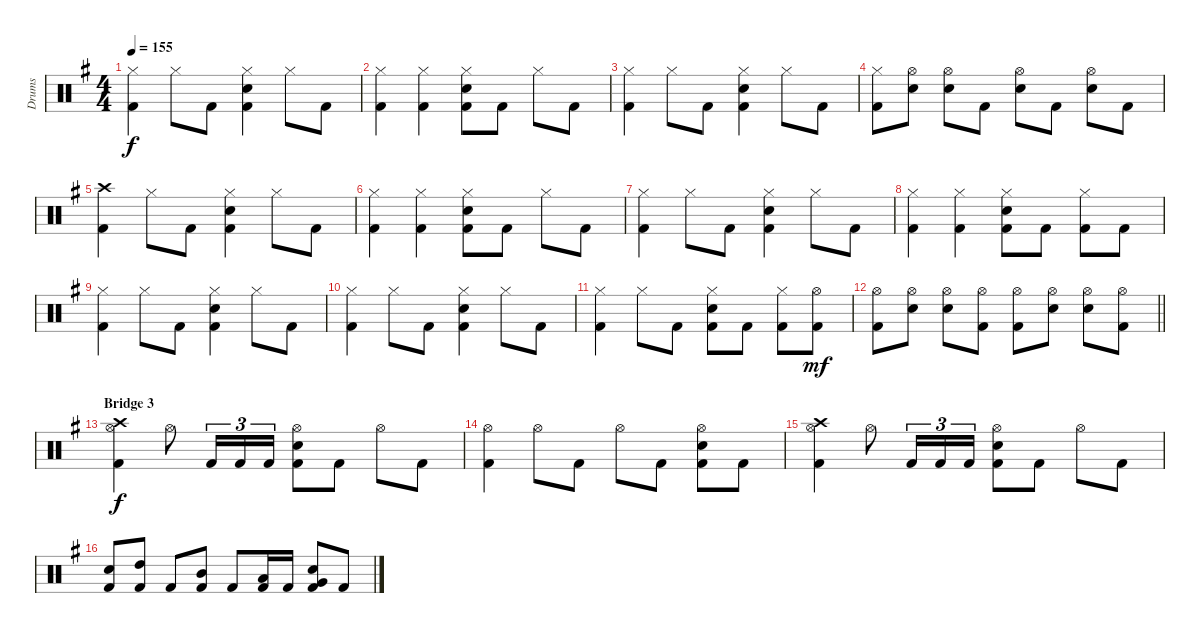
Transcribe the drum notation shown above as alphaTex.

\track ("Drums" "Drums") {instrument percussion}
\staff {score}
\articulation defaults
\ts (4 4)
\tempo 155
\clef neutral
\ks g
("Hi-Hat (closed)" "Kick (hit) 2").4{dy f} "Hi-Hat (closed)".8 "Kick (hit) 2".8 ("Hi-Hat (closed)" "Snare (hit) 2" "Kick (hit) 2").4 "Hi-Hat (closed)".8 "Kick (hit) 2".8 |
("Hi-Hat (closed)" "Kick (hit) 2").4 ("Hi-Hat (closed)" "Kick (hit) 2").4 ("Hi-Hat (closed)" "Snare (hit) 2" "Kick (hit) 2").8 "Kick (hit) 2".8 "Hi-Hat (closed)".8 "Kick (hit) 2".8 |
("Hi-Hat (closed)" "Kick (hit) 2").4 "Hi-Hat (closed)".8 "Kick (hit) 2".8 ("Hi-Hat (closed)" "Snare (hit) 2" "Kick (hit) 2").4 "Hi-Hat (closed)".8 "Kick (hit) 2".8 |
("Hi-Hat (closed)" "Kick (hit) 2").8 ("Hi-Hat (open)" "Snare (hit) 2").8 ("Hi-Hat (open)" "Snare (hit) 2").8 "Kick (hit) 2".8 ("Hi-Hat (open)" "Snare (hit) 2").8 "Kick (hit) 2".8 ("Hi-Hat (open)" "Snare (hit) 2").8 "Kick (hit) 2".8 |
("Crash high (hit)" "Kick (hit) 2").4 "Hi-Hat (closed)".8 "Kick (hit) 2".8 ("Hi-Hat (closed)" "Snare (hit) 2" "Kick (hit) 2").4 "Hi-Hat (closed)".8 "Kick (hit) 2".8 |
("Hi-Hat (closed)" "Kick (hit) 2").4 ("Hi-Hat (closed)" "Kick (hit) 2").4 ("Hi-Hat (closed)" "Snare (hit) 2" "Kick (hit) 2").8 "Kick (hit) 2".8 "Hi-Hat (closed)".8 "Kick (hit) 2".8 |
("Hi-Hat (closed)" "Kick (hit) 2").4 "Hi-Hat (closed)".8 "Kick (hit) 2".8 ("Hi-Hat (closed)" "Snare (hit) 2" "Kick (hit) 2").4 "Hi-Hat (closed)".8 "Kick (hit) 2".8 |
("Hi-Hat (closed)" "Kick (hit) 2").4 ("Hi-Hat (closed)" "Kick (hit) 2").4 ("Hi-Hat (closed)" "Snare (hit) 2" "Kick (hit) 2").8 "Kick (hit) 2".8 ("Hi-Hat (closed)" "Kick (hit) 2").8 "Kick (hit) 2".8 |
("Hi-Hat (closed)" "Kick (hit) 2").4 "Hi-Hat (closed)".8 "Kick (hit) 2".8 ("Hi-Hat (closed)" "Snare (hit) 2" "Kick (hit) 2").4 "Hi-Hat (closed)".8 "Kick (hit) 2".8 |
("Hi-Hat (closed)" "Kick (hit) 2").4 "Hi-Hat (closed)".8 "Kick (hit) 2".8 ("Hi-Hat (closed)" "Snare (hit) 2" "Kick (hit) 2").4 "Hi-Hat (closed)".8 "Kick (hit) 2".8 |
("Hi-Hat (closed)" "Kick (hit) 2").4 "Hi-Hat (closed)".8 "Kick (hit) 2".8 ("Hi-Hat (closed)" "Snare (hit) 2" "Kick (hit) 2").8 "Kick (hit) 2".8 ("Hi-Hat (closed)" "Kick (hit) 2").8 ("Hi-Hat (open)" "Kick (hit) 2").8{dy mf} |
\barLineRight lightlight
("Hi-Hat (open)" "Kick (hit) 2").8 ("Hi-Hat (open)" "Snare (hit) 2").8 ("Hi-Hat (open)" "Snare (hit) 2").8 ("Hi-Hat (open)" "Kick (hit) 2").8 ("Hi-Hat (open)" "Kick (hit) 2").8 ("Hi-Hat (open)" "Snare (hit) 2").8 ("Hi-Hat (open)" "Snare (hit) 2").8 ("Hi-Hat (open)" "Kick (hit) 2").8 |
\section ("" "Bridge 3")
("Crash high (hit)" "Hi-Hat (open)" "Kick (hit) 2").4{dy f} "Hi-Hat (open)".8 "Kick (hit) 2".16{tu (3 2)} "Kick (hit) 2".16{tu (3 2)} "Kick (hit) 2".16{tu (3 2)} ("Hi-Hat (open)" "Snare (hit) 2" "Kick (hit) 2").8 "Kick (hit) 2".8 "Hi-Hat (open)".8 "Kick (hit) 2".8 |
("Hi-Hat (open)" "Kick (hit) 2").4 "Hi-Hat (open)".8 "Kick (hit) 2".8 "Hi-Hat (open)".8 "Kick (hit) 2".8 ("Hi-Hat (open)" "Snare (hit) 2" "Kick (hit) 2").8 "Kick (hit) 2".8 |
("Crash high (hit)" "Hi-Hat (open)" "Kick (hit) 2").4 "Hi-Hat (open)".8 "Kick (hit) 2".16{tu (3 2)} "Kick (hit) 2".16{tu (3 2)} "Kick (hit) 2".16{tu (3 2)} ("Hi-Hat (open)" "Snare (hit) 2" "Kick (hit) 2").8 "Kick (hit) 2".8 "Hi-Hat (open)".8 "Kick (hit) 2".8 |
("Snare (hit) 2" "Kick (hit) 2").8 ("High Tom (hit)" "Kick (hit) 2").8 "Kick (hit) 2".8 ("Mid Tom (hit)" "Kick (hit) 2").8 "Kick (hit) 2".8 ("Low Tom (hit)" "Kick (hit) 2").16 "Kick (hit) 2".16 ("Very Low Tom (hit)" "Snare (hit) 2" "Kick (hit) 2").8 "Kick (hit) 2".8
